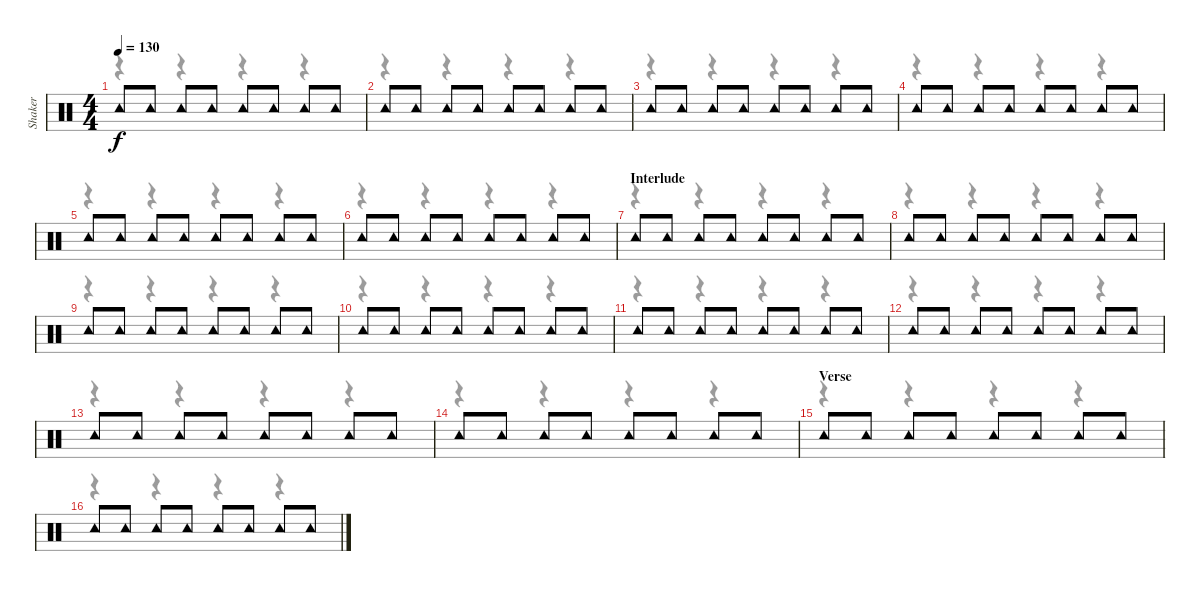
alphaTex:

\track ("Shaker" "Shaker") {instrument percussion}
\staff {score}
\articulation defaults
\voice
\ts (4 4)
\tempo 130
\clef neutral
\ks c "Tambourine (hit)".8{dy f} "Tambourine (hit)".8 "Tambourine (hit)".8 "Tambourine (hit)".8 "Tambourine (hit)".8 "Tambourine (hit)".8 "Tambourine (hit)".8 "Tambourine (hit)".8
|
"Tambourine (hit)".8 "Tambourine (hit)".8 "Tambourine (hit)".8 "Tambourine (hit)".8 "Tambourine (hit)".8 "Tambourine (hit)".8 "Tambourine (hit)".8 "Tambourine (hit)".8 |
"Tambourine (hit)".8 "Tambourine (hit)".8 "Tambourine (hit)".8 "Tambourine (hit)".8 "Tambourine (hit)".8 "Tambourine (hit)".8 "Tambourine (hit)".8 "Tambourine (hit)".8 |
"Tambourine (hit)".8 "Tambourine (hit)".8 "Tambourine (hit)".8 "Tambourine (hit)".8 "Tambourine (hit)".8 "Tambourine (hit)".8 "Tambourine (hit)".8 "Tambourine (hit)".8 |
"Tambourine (hit)".8 "Tambourine (hit)".8 "Tambourine (hit)".8 "Tambourine (hit)".8 "Tambourine (hit)".8 "Tambourine (hit)".8 "Tambourine (hit)".8 "Tambourine (hit)".8 |
"Tambourine (hit)".8 "Tambourine (hit)".8 "Tambourine (hit)".8 "Tambourine (hit)".8 "Tambourine (hit)".8 "Tambourine (hit)".8 "Tambourine (hit)".8 "Tambourine (hit)".8 |
\section ("" "Interlude")
"Tambourine (hit)".8 "Tambourine (hit)".8 "Tambourine (hit)".8 "Tambourine (hit)".8 "Tambourine (hit)".8 "Tambourine (hit)".8 "Tambourine (hit)".8 "Tambourine (hit)".8 |
"Tambourine (hit)".8 "Tambourine (hit)".8 "Tambourine (hit)".8 "Tambourine (hit)".8 "Tambourine (hit)".8 "Tambourine (hit)".8 "Tambourine (hit)".8 "Tambourine (hit)".8 |
"Tambourine (hit)".8 "Tambourine (hit)".8 "Tambourine (hit)".8 "Tambourine (hit)".8 "Tambourine (hit)".8 "Tambourine (hit)".8 "Tambourine (hit)".8 "Tambourine (hit)".8 |
"Tambourine (hit)".8 "Tambourine (hit)".8 "Tambourine (hit)".8 "Tambourine (hit)".8 "Tambourine (hit)".8 "Tambourine (hit)".8 "Tambourine (hit)".8 "Tambourine (hit)".8 |
"Tambourine (hit)".8 "Tambourine (hit)".8 "Tambourine (hit)".8 "Tambourine (hit)".8 "Tambourine (hit)".8 "Tambourine (hit)".8 "Tambourine (hit)".8 "Tambourine (hit)".8 |
"Tambourine (hit)".8 "Tambourine (hit)".8 "Tambourine (hit)".8 "Tambourine (hit)".8 "Tambourine (hit)".8 "Tambourine (hit)".8 "Tambourine (hit)".8 "Tambourine (hit)".8 |
"Tambourine (hit)".8 "Tambourine (hit)".8 "Tambourine (hit)".8 "Tambourine (hit)".8 "Tambourine (hit)".8 "Tambourine (hit)".8 "Tambourine (hit)".8 "Tambourine (hit)".8 |
"Tambourine (hit)".8 "Tambourine (hit)".8 "Tambourine (hit)".8 "Tambourine (hit)".8 "Tambourine (hit)".8 "Tambourine (hit)".8 "Tambourine (hit)".8 "Tambourine (hit)".8 |
\section ("" "Verse")
"Tambourine (hit)".8 "Tambourine (hit)".8 "Tambourine (hit)".8 "Tambourine (hit)".8 "Tambourine (hit)".8 "Tambourine (hit)".8 "Tambourine (hit)".8 "Tambourine (hit)".8 |
"Tambourine (hit)".8 "Tambourine (hit)".8 "Tambourine (hit)".8 "Tambourine (hit)".8 "Tambourine (hit)".8 "Tambourine (hit)".8 "Tambourine (hit)".8 "Tambourine (hit)".8
\voice
\clef neutral
\ottava regular
\simile none
\ks c
r.4{dy f} r.4 r.4 r.4 |
r.4 r.4 r.4 r.4 |
r.4 r.4 r.4 r.4 |
r.4 r.4 r.4 r.4 |
r.4 r.4 r.4 r.4 |
r.4 r.4 r.4 r.4 |
r.4 r.4 r.4 r.4 |
r.4 r.4 r.4 r.4 |
r.4 r.4 r.4 r.4 |
r.4 r.4 r.4 r.4 |
r.4 r.4 r.4 r.4 |
r.4 r.4 r.4 r.4 |
r.4 r.4 r.4 r.4 |
r.4 r.4 r.4 r.4 |
r.4 r.4 r.4 r.4 |
r.4 r.4 r.4 r.4
